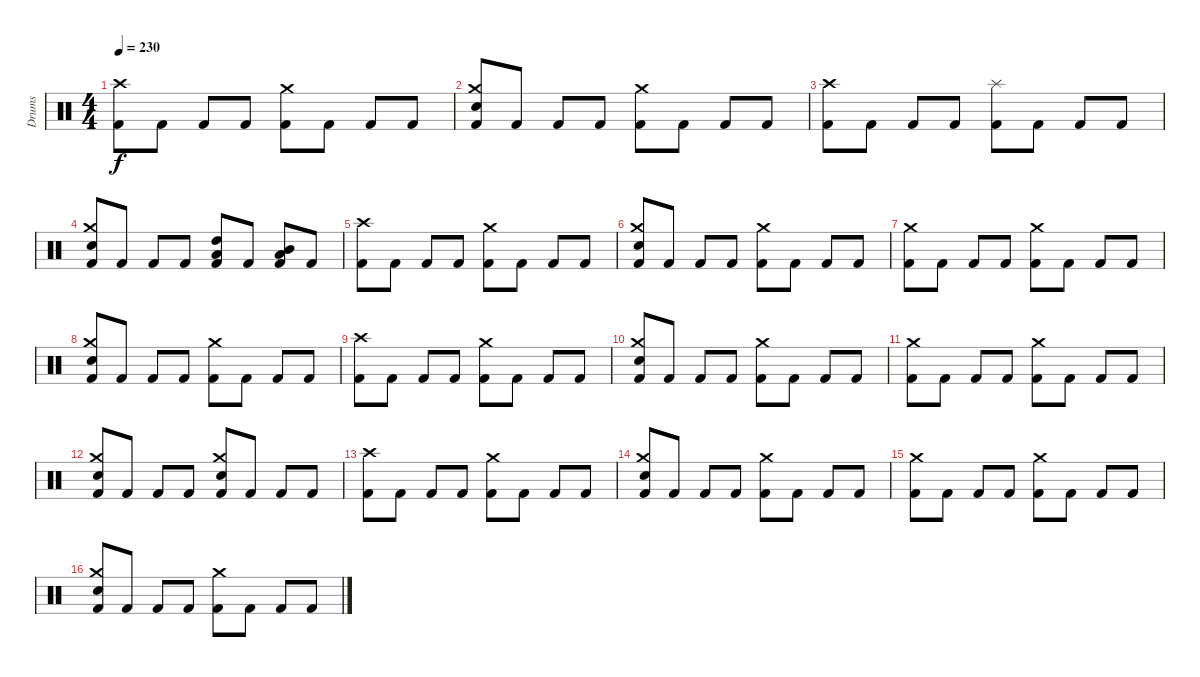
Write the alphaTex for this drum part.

\track ("Drums" "Drums") {instrument percussion}
\staff {score}
\articulation defaults
\ts (4 4)
\tempo 230
\clef neutral
\ks c
("Crash high (hit)" "Kick (hit) 2").8{dy f} "Kick (hit) 2".8 "Kick (hit) 2".8 "Kick (hit) 2".8 ("Crash medium (hit)" "Kick (hit) 2").8 "Kick (hit) 2".8 "Kick (hit) 2".8 "Kick (hit) 2".8 |
("Crash medium (hit)" "Electric Snare (hit)" "Kick (hit) 2").8 "Kick (hit) 2".8 "Kick (hit) 2".8 "Kick (hit) 2".8 ("Crash medium (hit)" "Kick (hit) 2").8 "Kick (hit) 2".8 "Kick (hit) 2".8 "Kick (hit) 2".8 |
("Crash high (hit)" "Kick (hit) 2").8 "Kick (hit) 2".8 "Kick (hit) 2".8 "Kick (hit) 2".8 ("Splash (hit)" "Kick (hit) 2").8 "Kick (hit) 2".8 "Kick (hit) 2".8 "Kick (hit) 2".8 |
("Crash medium (hit)" "Electric Snare (hit)" "Kick (hit) 2").8 "Kick (hit) 2".8 "Kick (hit) 2".8 "Kick (hit) 2".8 ("High Tom (hit)" "Low Tom (hit)" "Kick (hit) 2").8 "Kick (hit) 2".8 ("Mid Tom (hit)" "Low Tom (hit)" "Kick (hit) 2").8 "Kick (hit) 2".8 |
("Crash high (hit)" "Kick (hit) 2").8 "Kick (hit) 2".8 "Kick (hit) 2".8 "Kick (hit) 2".8 ("Crash medium (hit)" "Kick (hit) 2").8 "Kick (hit) 2".8 "Kick (hit) 2".8 "Kick (hit) 2".8 |
("Crash medium (hit)" "Electric Snare (hit)" "Kick (hit) 2").8 "Kick (hit) 2".8 "Kick (hit) 2".8 "Kick (hit) 2".8 ("Crash medium (hit)" "Kick (hit) 2").8 "Kick (hit) 2".8 "Kick (hit) 2".8 "Kick (hit) 2".8 |
("Crash medium (hit)" "Kick (hit) 2").8 "Kick (hit) 2".8 "Kick (hit) 2".8 "Kick (hit) 2".8 ("Crash medium (hit)" "Kick (hit) 2").8 "Kick (hit) 2".8 "Kick (hit) 2".8 "Kick (hit) 2".8 |
("Crash medium (hit)" "Electric Snare (hit)" "Kick (hit) 2").8 "Kick (hit) 2".8 "Kick (hit) 2".8 "Kick (hit) 2".8 ("Crash medium (hit)" "Kick (hit) 2").8 "Kick (hit) 2".8 "Kick (hit) 2".8 "Kick (hit) 2".8 |
("Crash high (hit)" "Kick (hit) 2").8 "Kick (hit) 2".8 "Kick (hit) 2".8 "Kick (hit) 2".8 ("Crash medium (hit)" "Kick (hit) 2").8 "Kick (hit) 2".8 "Kick (hit) 2".8 "Kick (hit) 2".8 |
("Crash medium (hit)" "Electric Snare (hit)" "Kick (hit) 2").8 "Kick (hit) 2".8 "Kick (hit) 2".8 "Kick (hit) 2".8 ("Crash medium (hit)" "Kick (hit) 2").8 "Kick (hit) 2".8 "Kick (hit) 2".8 "Kick (hit) 2".8 |
("Crash medium (hit)" "Kick (hit) 2").8 "Kick (hit) 2".8 "Kick (hit) 2".8 "Kick (hit) 2".8 ("Crash medium (hit)" "Kick (hit) 2").8 "Kick (hit) 2".8 "Kick (hit) 2".8 "Kick (hit) 2".8 |
("Crash medium (hit)" "Electric Snare (hit)" "Kick (hit) 2").8 "Kick (hit) 2".8 "Kick (hit) 2".8 "Kick (hit) 2".8 ("Crash medium (hit)" "Electric Snare (hit)" "Kick (hit) 2").8 "Kick (hit) 2".8 "Kick (hit) 2".8 "Kick (hit) 2".8 |
("Crash high (hit)" "Kick (hit) 2").8 "Kick (hit) 2".8 "Kick (hit) 2".8 "Kick (hit) 2".8 ("Crash medium (hit)" "Kick (hit) 2").8 "Kick (hit) 2".8 "Kick (hit) 2".8 "Kick (hit) 2".8 |
("Crash medium (hit)" "Electric Snare (hit)" "Kick (hit) 2").8 "Kick (hit) 2".8 "Kick (hit) 2".8 "Kick (hit) 2".8 ("Crash medium (hit)" "Kick (hit) 2").8 "Kick (hit) 2".8 "Kick (hit) 2".8 "Kick (hit) 2".8 |
("Crash medium (hit)" "Kick (hit) 2").8 "Kick (hit) 2".8 "Kick (hit) 2".8 "Kick (hit) 2".8 ("Crash medium (hit)" "Kick (hit) 2").8 "Kick (hit) 2".8 "Kick (hit) 2".8 "Kick (hit) 2".8 |
("Crash medium (hit)" "Electric Snare (hit)" "Kick (hit) 2").8 "Kick (hit) 2".8 "Kick (hit) 2".8 "Kick (hit) 2".8 ("Crash medium (hit)" "Kick (hit) 2").8 "Kick (hit) 2".8 "Kick (hit) 2".8 "Kick (hit) 2".8
